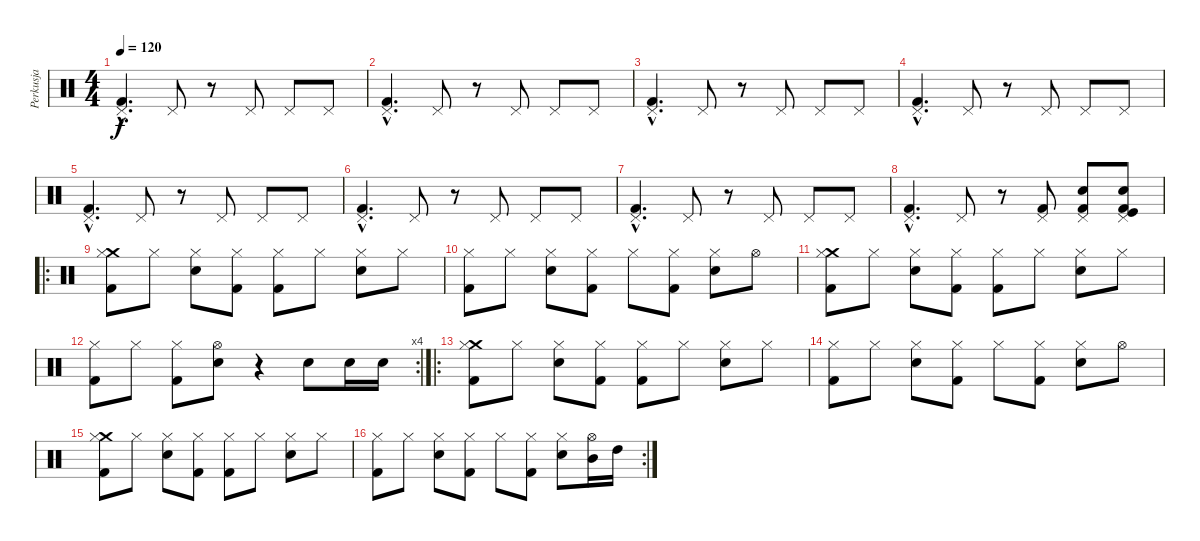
\track ("Perkusja" "Perkusja") {instrument percussion}
\staff {score}
\articulation defaults
\ts (4 4)
\tempo 120
\clef neutral
\ks c
("Pedal Hi-Hat (hit)"{hac} "Kick (hit) 2"{hac}).4{d dy f} "Pedal Hi-Hat (hit)".8 r.8 "Pedal Hi-Hat (hit)".8 "Pedal Hi-Hat (hit)".8 "Pedal Hi-Hat (hit)".8 |
("Pedal Hi-Hat (hit)"{hac} "Kick (hit) 2"{hac}).4{d} "Pedal Hi-Hat (hit)".8 r.8 "Pedal Hi-Hat (hit)".8 "Pedal Hi-Hat (hit)".8 "Pedal Hi-Hat (hit)".8 |
("Pedal Hi-Hat (hit)"{hac} "Kick (hit) 2"{hac}).4{d} "Pedal Hi-Hat (hit)".8 r.8 "Pedal Hi-Hat (hit)".8 "Pedal Hi-Hat (hit)".8 "Pedal Hi-Hat (hit)".8 |
("Pedal Hi-Hat (hit)"{hac} "Kick (hit) 2"{hac}).4{d} "Pedal Hi-Hat (hit)".8 r.8 "Pedal Hi-Hat (hit)".8 "Pedal Hi-Hat (hit)".8 "Pedal Hi-Hat (hit)".8 |
("Pedal Hi-Hat (hit)"{hac} "Kick (hit) 2"{hac}).4{d} "Pedal Hi-Hat (hit)".8 r.8 "Pedal Hi-Hat (hit)".8 "Pedal Hi-Hat (hit)".8 "Pedal Hi-Hat (hit)".8 |
("Pedal Hi-Hat (hit)"{hac} "Kick (hit) 2"{hac}).4{d} "Pedal Hi-Hat (hit)".8 r.8 "Pedal Hi-Hat (hit)".8 "Pedal Hi-Hat (hit)".8 "Pedal Hi-Hat (hit)".8 |
("Pedal Hi-Hat (hit)"{hac} "Kick (hit) 2"{hac}).4{d} "Pedal Hi-Hat (hit)".8 r.8 "Pedal Hi-Hat (hit)".8 "Pedal Hi-Hat (hit)".8 "Pedal Hi-Hat (hit)".8 |
("Pedal Hi-Hat (hit)"{hac} "Kick (hit) 2"{hac}).4{d} "Pedal Hi-Hat (hit)".8 r.8 ("Pedal Hi-Hat (hit)" "Kick (hit) 2").8 ("Pedal Hi-Hat (hit)" "Kick (hit) 2" "Electric Snare (hit)").8 ("Pedal Hi-Hat (hit)" "Kick (hit) 2" "Kick (hit)" "Electric Snare (hit)").8 |
\ro
("Crash medium (hit)" "Hi-Hat (closed)" "Kick (hit) 2").8 "Hi-Hat (closed)".8 ("Hi-Hat (closed)" "Electric Snare (hit)").8 ("Hi-Hat (closed)" "Kick (hit) 2").8 ("Hi-Hat (closed)" "Kick (hit) 2").8 "Hi-Hat (closed)".8 ("Hi-Hat (closed)" "Electric Snare (hit)").8 "Hi-Hat (closed)".8 |
("Hi-Hat (closed)" "Kick (hit) 2").8 "Hi-Hat (closed)".8 ("Hi-Hat (closed)" "Electric Snare (hit)").8 ("Hi-Hat (closed)" "Kick (hit) 2").8 "Hi-Hat (closed)".8 ("Hi-Hat (closed)" "Kick (hit) 2").8 ("Hi-Hat (closed)" "Electric Snare (hit)").8 "Hi-Hat (open)".8 |
("Crash medium (hit)" "Hi-Hat (closed)" "Kick (hit) 2").8 "Hi-Hat (closed)".8 ("Hi-Hat (closed)" "Electric Snare (hit)").8 ("Hi-Hat (closed)" "Kick (hit) 2").8 ("Hi-Hat (closed)" "Kick (hit) 2").8 "Hi-Hat (closed)".8 ("Hi-Hat (closed)" "Electric Snare (hit)").8 "Hi-Hat (closed)".8 |
\rc 4
("Hi-Hat (closed)" "Kick (hit) 2").8 "Hi-Hat (closed)".8 ("Hi-Hat (closed)" "Kick (hit) 2").8 ("Hi-Hat (open)" "Electric Snare (hit)").8 r.4 "Electric Snare (hit)".8 "Electric Snare (hit)".16 "Electric Snare (hit)".16 |
\ro
("Crash medium (hit)" "Hi-Hat (closed)" "Kick (hit) 2").8 "Hi-Hat (closed)".8 ("Hi-Hat (closed)" "Electric Snare (hit)").8 ("Hi-Hat (closed)" "Kick (hit) 2").8 ("Hi-Hat (closed)" "Kick (hit) 2").8 "Hi-Hat (closed)".8 ("Hi-Hat (closed)" "Electric Snare (hit)").8 "Hi-Hat (closed)".8 |
("Hi-Hat (closed)" "Kick (hit) 2").8 "Hi-Hat (closed)".8 ("Hi-Hat (closed)" "Electric Snare (hit)").8 ("Hi-Hat (closed)" "Kick (hit) 2").8 "Hi-Hat (closed)".8 ("Hi-Hat (closed)" "Kick (hit) 2").8 ("Hi-Hat (closed)" "Electric Snare (hit)").8 "Hi-Hat (open)".8 |
("Crash medium (hit)" "Hi-Hat (closed)" "Kick (hit) 2").8 "Hi-Hat (closed)".8 ("Hi-Hat (closed)" "Electric Snare (hit)").8 ("Hi-Hat (closed)" "Kick (hit) 2").8 ("Hi-Hat (closed)" "Kick (hit) 2").8 "Hi-Hat (closed)".8 ("Hi-Hat (closed)" "Electric Snare (hit)").8 "Hi-Hat (closed)".8 |
\rc 2
("Hi-Hat (closed)" "Kick (hit) 2").8 "Hi-Hat (closed)".8 ("Hi-Hat (closed)" "Electric Snare (hit)").8 ("Hi-Hat (closed)" "Kick (hit) 2").8 "Hi-Hat (closed)".8 ("Hi-Hat (closed)" "Kick (hit) 2").8 ("Hi-Hat (closed)" "Electric Snare (hit)").8 ("Hi-Hat (open)" "Mid Tom (hit)").16 "High Tom (hit)".16
